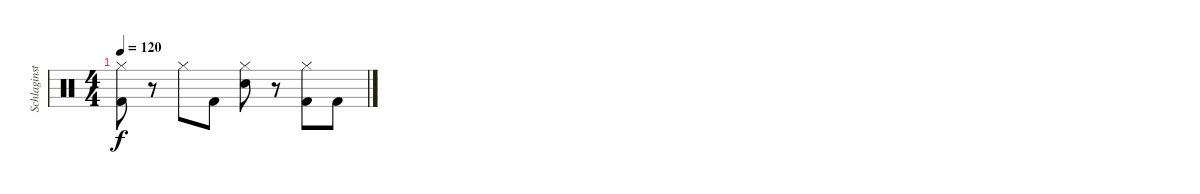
\track ("Schlaginstrumente - Auswahl" "Schlaginst") {instrument percussion}
\staff {score}
\articulation defaults
\ts (4 4)
\tempo 120
\clef neutral
\ks c
("Hi-Hat (closed)" "Kick (hit) 2").8{dy f} r.8 "Hi-Hat (closed)".8 "Kick (hit) 2".8 ("Hi-Hat (closed)" "Snare (hit) 2").8 r.8 ("Hi-Hat (closed)" "Kick (hit) 2").8 "Kick (hit) 2".8
